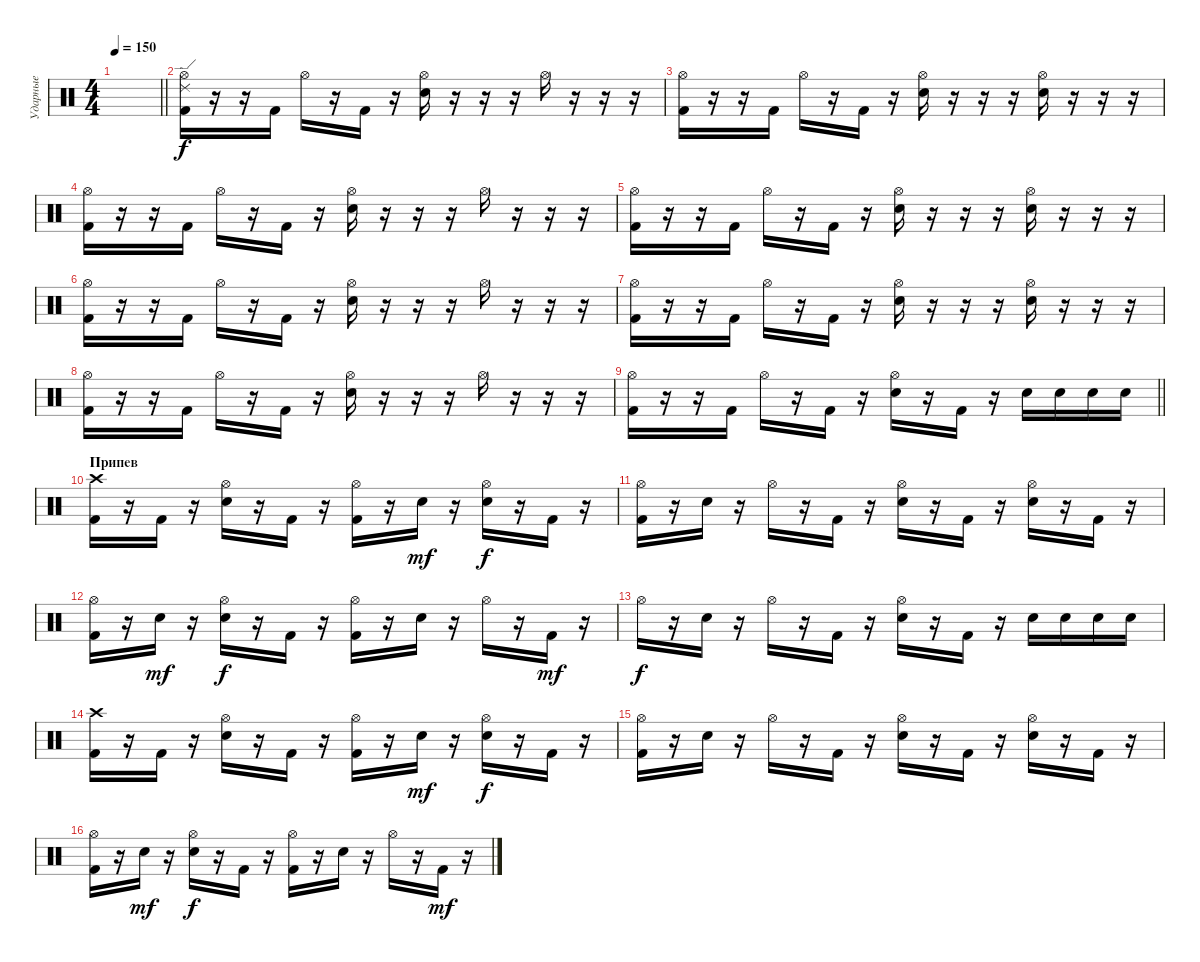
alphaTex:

\track ("Ударные" "Ударные") {instrument percussion}
\staff {score}
\articulation defaults
\ts (4 4)
\tempo 150
\clef neutral
\barLineRight lightlight
\ks c
|
("Hi-Hat (open)" "Ride (edge) 2" "Kick (hit) 2").16 r.16 r.16 "Kick (hit) 2".16 "Hi-Hat (open)".16 r.16 "Kick (hit) 2".16 r.16 ("Hi-Hat (open)" "Electric Snare (hit)").16 r.16 r.16 r.16 "Hi-Hat (open)".16 r.16 r.16 r.16 |
("Hi-Hat (open)" "Kick (hit) 2").16 r.16 r.16 "Kick (hit) 2".16 "Hi-Hat (open)".16 r.16 "Kick (hit) 2".16 r.16 ("Hi-Hat (open)" "Electric Snare (hit)").16 r.16 r.16 r.16 ("Hi-Hat (open)" "Electric Snare (hit)").16 r.16 r.16 r.16 |
("Hi-Hat (open)" "Kick (hit) 2").16 r.16 r.16 "Kick (hit) 2".16 "Hi-Hat (open)".16 r.16 "Kick (hit) 2".16 r.16 ("Hi-Hat (open)" "Electric Snare (hit)").16 r.16 r.16 r.16 "Hi-Hat (open)".16 r.16 r.16 r.16 |
("Hi-Hat (open)" "Kick (hit) 2").16 r.16 r.16 "Kick (hit) 2".16 "Hi-Hat (open)".16 r.16 "Kick (hit) 2".16 r.16 ("Hi-Hat (open)" "Electric Snare (hit)").16 r.16 r.16 r.16 ("Hi-Hat (open)" "Electric Snare (hit)").16 r.16 r.16 r.16 |
("Hi-Hat (open)" "Kick (hit) 2").16 r.16 r.16 "Kick (hit) 2".16 "Hi-Hat (open)".16 r.16 "Kick (hit) 2".16 r.16 ("Hi-Hat (open)" "Electric Snare (hit)").16 r.16 r.16 r.16 "Hi-Hat (open)".16 r.16 r.16 r.16 |
("Hi-Hat (open)" "Kick (hit) 2").16 r.16 r.16 "Kick (hit) 2".16 "Hi-Hat (open)".16 r.16 "Kick (hit) 2".16 r.16 ("Hi-Hat (open)" "Electric Snare (hit)").16 r.16 r.16 r.16 ("Hi-Hat (open)" "Electric Snare (hit)").16 r.16 r.16 r.16 |
("Hi-Hat (open)" "Kick (hit) 2").16 r.16 r.16 "Kick (hit) 2".16 "Hi-Hat (open)".16 r.16 "Kick (hit) 2".16 r.16 ("Hi-Hat (open)" "Electric Snare (hit)").16 r.16 r.16 r.16 "Hi-Hat (open)".16 r.16 r.16 r.16 |
\barLineRight lightlight
("Hi-Hat (open)" "Kick (hit) 2").16 r.16 r.16 "Kick (hit) 2".16 "Hi-Hat (open)".16 r.16 "Kick (hit) 2".16 r.16 ("Hi-Hat (open)" "Electric Snare (hit)").16 r.16 "Kick (hit) 2".16 r.16 "Electric Snare (hit)".16 "Electric Snare (hit)".16 "Electric Snare (hit)".16 "Electric Snare (hit)".16 |
\section ("" "Припев")
("Crash high (hit)" "Kick (hit) 2").16 r.16 "Kick (hit) 2".16 r.16 ("Hi-Hat (open)" "Electric Snare (hit)").16 r.16 "Kick (hit) 2".16 r.16 ("Hi-Hat (open)" "Kick (hit) 2").16 r.16 "Electric Snare (hit)".16{dy mf} r.16 ("Hi-Hat (open)" "Electric Snare (hit)").16{dy f} r.16 "Kick (hit) 2".16 r.16 |
("Hi-Hat (open)" "Kick (hit) 2").16 r.16 "Electric Snare (hit)".16 r.16 "Hi-Hat (open)".16 r.16 "Kick (hit) 2".16 r.16 ("Hi-Hat (open)" "Electric Snare (hit)").16 r.16 "Kick (hit) 2".16 r.16 ("Hi-Hat (open)" "Electric Snare (hit)").16 r.16 "Kick (hit) 2".16 r.16 |
("Hi-Hat (open)" "Kick (hit) 2").16 r.16 "Electric Snare (hit)".16{dy mf} r.16 ("Hi-Hat (open)" "Electric Snare (hit)").16{dy f} r.16 "Kick (hit) 2".16 r.16 ("Hi-Hat (open)" "Kick (hit) 2").16 r.16 "Electric Snare (hit)".16 r.16 "Hi-Hat (open)".16 r.16 "Kick (hit) 2".16{dy mf} r.16 |
"Hi-Hat (open)".16{dy f} r.16 "Electric Snare (hit)".16 r.16 "Hi-Hat (open)".16 r.16 "Kick (hit) 2".16 r.16 ("Hi-Hat (open)" "Electric Snare (hit)").16 r.16 "Kick (hit) 2".16 r.16 "Electric Snare (hit)".16 "Electric Snare (hit)".16 "Electric Snare (hit)".16 "Electric Snare (hit)".16 |
("Crash high (hit)" "Kick (hit) 2").16 r.16 "Kick (hit) 2".16 r.16 ("Hi-Hat (open)" "Electric Snare (hit)").16 r.16 "Kick (hit) 2".16 r.16 ("Hi-Hat (open)" "Kick (hit) 2").16 r.16 "Electric Snare (hit)".16{dy mf} r.16 ("Hi-Hat (open)" "Electric Snare (hit)").16{dy f} r.16 "Kick (hit) 2".16 r.16 |
("Hi-Hat (open)" "Kick (hit) 2").16 r.16 "Electric Snare (hit)".16 r.16 "Hi-Hat (open)".16 r.16 "Kick (hit) 2".16 r.16 ("Hi-Hat (open)" "Electric Snare (hit)").16 r.16 "Kick (hit) 2".16 r.16 ("Hi-Hat (open)" "Electric Snare (hit)").16 r.16 "Kick (hit) 2".16 r.16 |
("Hi-Hat (open)" "Kick (hit) 2").16 r.16 "Electric Snare (hit)".16{dy mf} r.16 ("Hi-Hat (open)" "Electric Snare (hit)").16{dy f} r.16 "Kick (hit) 2".16 r.16 ("Hi-Hat (open)" "Kick (hit) 2").16 r.16 "Electric Snare (hit)".16 r.16 "Hi-Hat (open)".16 r.16 "Kick (hit) 2".16{dy mf} r.16
